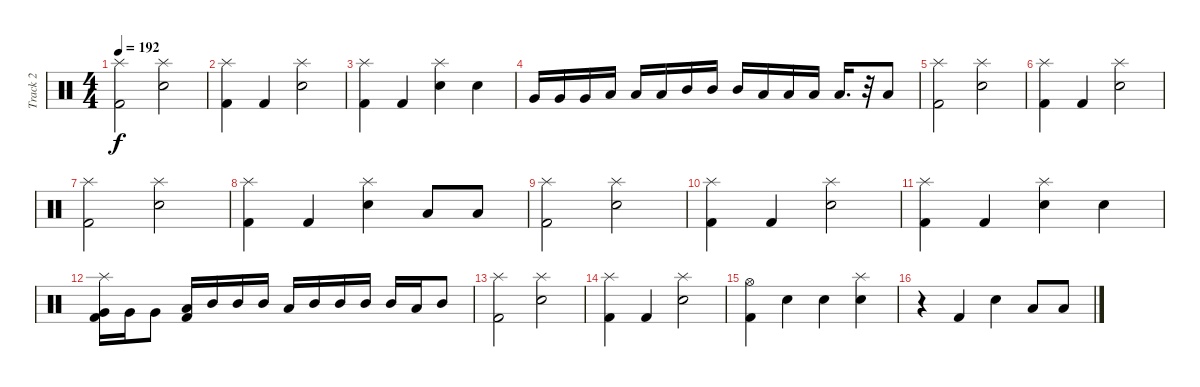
\track ("Track 2" "Track 2") {instrument percussion}
\staff {score}
\articulation defaults
\ts (4 4)
\tempo 192
\clef neutral
\ks c
("Splash (hit)" "Kick (hit) 2").2{dy f} ("Splash (hit)" "Electric Snare (hit)").2 |
("Splash (hit)" "Kick (hit) 2").4 "Kick (hit) 2".4 ("Splash (hit)" "Electric Snare (hit)").2 |
("Splash (hit)" "Kick (hit) 2").4 "Kick (hit) 2".4 ("Splash (hit)" "Electric Snare (hit)").4 "Electric Snare (hit)".4 |
"Very Low Tom (hit)".16 "Very Low Tom (hit)".16 "Very Low Tom (hit)".16 "Low Tom (hit)".16 "Low Tom (hit)".16 "Low Tom (hit)".16 "Mid Tom (hit)".16 "Mid Tom (hit)".16 "Mid Tom (hit)".16 "Low Tom (hit)".16 "Low Tom (hit)".16 "Low Tom (hit)".16 "Low Tom (hit)".16{d} r.32 "Low Tom (hit)".8 |
("Splash (hit)" "Kick (hit) 2").2 ("Splash (hit)" "Electric Snare (hit)").2 |
("Splash (hit)" "Kick (hit) 2").4 "Kick (hit) 2".4 ("Splash (hit)" "Electric Snare (hit)").2 |
("Splash (hit)" "Kick (hit) 2").2 ("Splash (hit)" "Electric Snare (hit)").2 |
("Splash (hit)" "Kick (hit) 2").4 "Kick (hit) 2".4 ("Splash (hit)" "Electric Snare (hit)").4 "Low Tom (hit)".8 "Low Tom (hit)".8 |
("Splash (hit)" "Kick (hit) 2").2 ("Splash (hit)" "Electric Snare (hit)").2 |
("Splash (hit)" "Kick (hit) 2").4 "Kick (hit) 2".4 ("Splash (hit)" "Electric Snare (hit)").2 |
("Splash (hit)" "Kick (hit) 2").4 "Kick (hit) 2".4 ("Splash (hit)" "Electric Snare (hit)").4 "Electric Snare (hit)".4 |
("Splash (hit)" "Very Low Tom (hit)" "Kick (hit) 2").16 "Very Low Tom (hit)".16 "Very Low Tom (hit)".8 ("Low Tom (hit)" "Kick (hit) 2").16 "Mid Tom (hit)".16 "Mid Tom (hit)".16 "Mid Tom (hit)".16 "Low Tom (hit)".16 "Mid Tom (hit)".16 "Mid Tom (hit)".16 "Mid Tom (hit)".16 "Mid Tom (hit)".16 "Low Tom (hit)".16 "Mid Tom (hit)".8 |
("Splash (hit)" "Kick (hit) 2").2 ("Splash (hit)" "Electric Snare (hit)").2 |
("Splash (hit)" "Kick (hit) 2").4 "Kick (hit) 2".4 ("Splash (hit)" "Electric Snare (hit)").2 |
("Hi-Hat (open)" "Kick (hit) 2").4 "Electric Snare (hit)".4 "Electric Snare (hit)".4 ("Splash (hit)" "Electric Snare (hit)").4 |
r.4 "Kick (hit) 2".4 "Electric Snare (hit)".4 "Low Tom (hit)".8 "Low Tom (hit)".8
